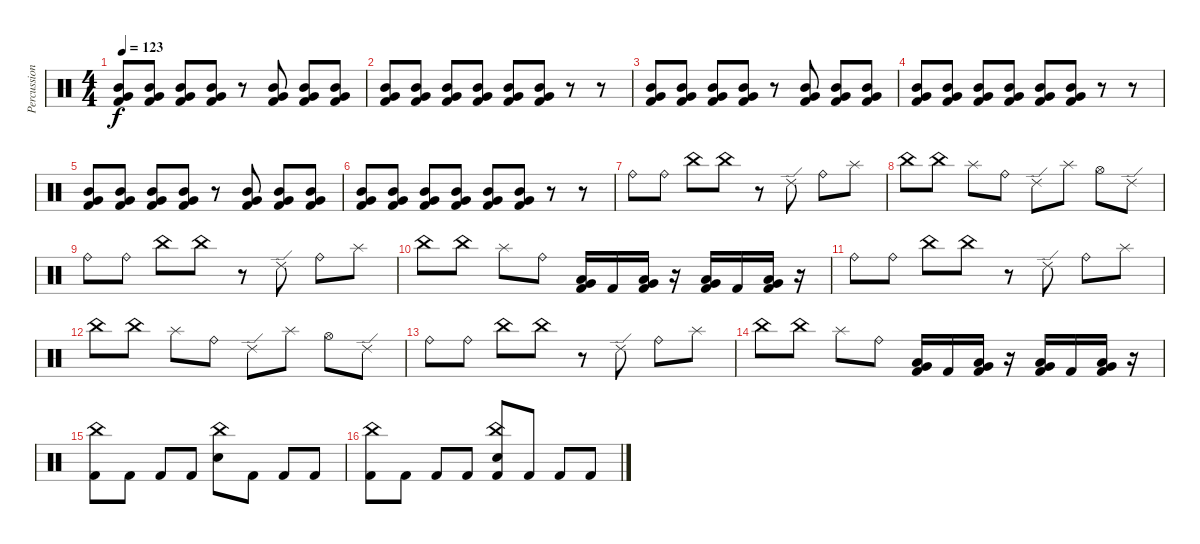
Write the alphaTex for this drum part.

\track ("Percussion" "Percussion") {instrument percussion}
\staff {score}
\articulation defaults
\ts (4 4)
\tempo 123
\clef neutral
\ks c
("Very Low Tom (hit)" "Mid Tom (hit)" "Kick (hit) 2").8{dy f} ("Very Low Tom (hit)" "Mid Tom (hit)" "Kick (hit) 2").8 ("Very Low Tom (hit)" "Mid Tom (hit)" "Kick (hit) 2").8 ("Very Low Tom (hit)" "Mid Tom (hit)" "Kick (hit) 2").8 r.8 ("Very Low Tom (hit)" "Mid Tom (hit)" "Kick (hit) 2").8 ("Very Low Tom (hit)" "Mid Tom (hit)" "Kick (hit) 2").8 ("Very Low Tom (hit)" "Mid Tom (hit)" "Kick (hit) 2").8 |
("Very Low Tom (hit)" "Mid Tom (hit)" "Kick (hit) 2").8 ("Very Low Tom (hit)" "Mid Tom (hit)" "Kick (hit) 2").8 ("Very Low Tom (hit)" "Mid Tom (hit)" "Kick (hit) 2").8 ("Very Low Tom (hit)" "Mid Tom (hit)" "Kick (hit) 2").8 ("Very Low Tom (hit)" "Mid Tom (hit)" "Kick (hit) 2").8 ("Very Low Tom (hit)" "Mid Tom (hit)" "Kick (hit) 2").8 r.8 r.8 |
("Very Low Tom (hit)" "Mid Tom (hit)" "Kick (hit) 2").8 ("Very Low Tom (hit)" "Mid Tom (hit)" "Kick (hit) 2").8 ("Very Low Tom (hit)" "Mid Tom (hit)" "Kick (hit) 2").8 ("Very Low Tom (hit)" "Mid Tom (hit)" "Kick (hit) 2").8 r.8 ("Very Low Tom (hit)" "Mid Tom (hit)" "Kick (hit) 2").8 ("Very Low Tom (hit)" "Mid Tom (hit)" "Kick (hit) 2").8 ("Very Low Tom (hit)" "Mid Tom (hit)" "Kick (hit) 2").8 |
("Very Low Tom (hit)" "Mid Tom (hit)" "Kick (hit) 2").8 ("Very Low Tom (hit)" "Mid Tom (hit)" "Kick (hit) 2").8 ("Very Low Tom (hit)" "Mid Tom (hit)" "Kick (hit) 2").8 ("Very Low Tom (hit)" "Mid Tom (hit)" "Kick (hit) 2").8 ("Very Low Tom (hit)" "Mid Tom (hit)" "Kick (hit) 2").8 ("Very Low Tom (hit)" "Mid Tom (hit)" "Kick (hit) 2").8 r.8 r.8 |
("Very Low Tom (hit)" "Mid Tom (hit)" "Kick (hit) 2").8 ("Very Low Tom (hit)" "Mid Tom (hit)" "Kick (hit) 2").8 ("Very Low Tom (hit)" "Mid Tom (hit)" "Kick (hit) 2").8 ("Very Low Tom (hit)" "Mid Tom (hit)" "Kick (hit) 2").8 r.8 ("Very Low Tom (hit)" "Mid Tom (hit)" "Kick (hit) 2").8 ("Very Low Tom (hit)" "Mid Tom (hit)" "Kick (hit) 2").8 ("Very Low Tom (hit)" "Mid Tom (hit)" "Kick (hit) 2").8 |
("Very Low Tom (hit)" "Mid Tom (hit)" "Kick (hit) 2").8 ("Very Low Tom (hit)" "Mid Tom (hit)" "Kick (hit) 2").8 ("Very Low Tom (hit)" "Mid Tom (hit)" "Kick (hit) 2").8 ("Very Low Tom (hit)" "Mid Tom (hit)" "Kick (hit) 2").8 ("Very Low Tom (hit)" "Mid Tom (hit)" "Kick (hit) 2").8 ("Very Low Tom (hit)" "Mid Tom (hit)" "Kick (hit) 2").8 r.8 r.8 |
"Ride (bell)".8 "Ride (bell)".8 "China (hit)".8 "China (hit)".8 r.8 "Ride (edge) 2".8 "Ride (bell)".8 "Splash (hit)".8 |
"China (hit)".8 "China (hit)".8 "Splash (hit)".8 "Ride (bell)".8 "Ride (edge) 2".8 "Splash (hit)".8 "Hi-Hat (open)".8 "Ride (edge) 2".8 |
"Ride (bell)".8 "Ride (bell)".8 "China (hit)".8 "China (hit)".8 r.8 "Ride (edge) 2".8 "Ride (bell)".8 "Splash (hit)".8 |
"China (hit)".8 "China (hit)".8 "Splash (hit)".8 "Ride (bell)".8 ("Low Floor Tom (hit)" "Very Low Tom (hit)" "Kick (hit) 2").16 "Kick (hit) 2".16 ("Low Floor Tom (hit)" "Very Low Tom (hit)" "Kick (hit) 2").16 r.16 ("Low Floor Tom (hit)" "Very Low Tom (hit)" "Kick (hit) 2").16 "Kick (hit) 2".16 ("Low Floor Tom (hit)" "Very Low Tom (hit)" "Kick (hit) 2").16 r.16 |
"Ride (bell)".8 "Ride (bell)".8 "China (hit)".8 "China (hit)".8 r.8 "Ride (edge) 2".8 "Ride (bell)".8 "Splash (hit)".8 |
"China (hit)".8 "China (hit)".8 "Splash (hit)".8 "Ride (bell)".8 "Ride (edge) 2".8 "Splash (hit)".8 "Hi-Hat (open)".8 "Ride (edge) 2".8 |
"Ride (bell)".8 "Ride (bell)".8 "China (hit)".8 "China (hit)".8 r.8 "Ride (edge) 2".8 "Ride (bell)".8 "Splash (hit)".8 |
"China (hit)".8 "China (hit)".8 "Splash (hit)".8 "Ride (bell)".8 ("Low Floor Tom (hit)" "Very Low Tom (hit)" "Kick (hit) 2").16 "Kick (hit) 2".16 ("Low Floor Tom (hit)" "Very Low Tom (hit)" "Kick (hit) 2").16 r.16 ("Low Floor Tom (hit)" "Very Low Tom (hit)" "Kick (hit) 2").16 "Kick (hit) 2".16 ("Low Floor Tom (hit)" "Very Low Tom (hit)" "Kick (hit) 2").16 r.16 |
("China (hit)" "Kick (hit) 2").8 "Kick (hit) 2".8 "Kick (hit) 2".8 "Kick (hit) 2".8 ("China (hit)" "Snare (hit) 2").8 "Kick (hit) 2".8 "Kick (hit) 2".8 "Kick (hit) 2".8 |
("China (hit)" "Kick (hit) 2").8 "Kick (hit) 2".8 "Kick (hit) 2".8 "Kick (hit) 2".8 ("China (hit)" "Snare (hit) 2" "Kick (hit) 2").8 "Kick (hit) 2".8 "Kick (hit) 2".8 "Kick (hit) 2".8
